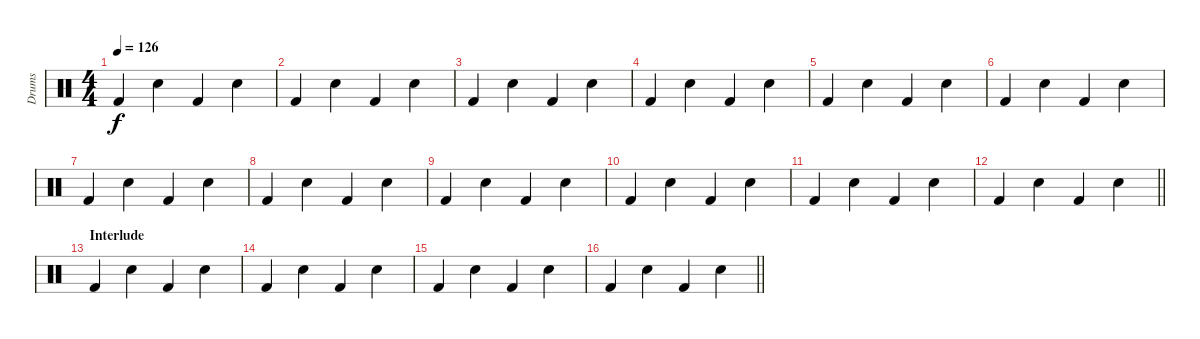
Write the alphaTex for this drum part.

\track ("Drums" "Drums") {instrument percussion}
\staff {score}
\articulation defaults
\ts (4 4)
\tempo 126
\clef neutral
\ks c "Kick (hit) 2".4{dy f} "Electric Snare (hit)".4 "Kick (hit) 2".4 "Electric Snare (hit)".4
|
"Kick (hit) 2".4 "Electric Snare (hit)".4 "Kick (hit) 2".4 "Electric Snare (hit)".4 |
"Kick (hit) 2".4 "Electric Snare (hit)".4 "Kick (hit) 2".4 "Electric Snare (hit)".4 |
"Kick (hit) 2".4 "Electric Snare (hit)".4 "Kick (hit) 2".4 "Electric Snare (hit)".4 |
"Kick (hit) 2".4 "Electric Snare (hit)".4 "Kick (hit) 2".4 "Electric Snare (hit)".4 |
"Kick (hit) 2".4 "Electric Snare (hit)".4 "Kick (hit) 2".4 "Electric Snare (hit)".4 |
"Kick (hit) 2".4 "Electric Snare (hit)".4 "Kick (hit) 2".4 "Electric Snare (hit)".4 |
"Kick (hit) 2".4 "Electric Snare (hit)".4 "Kick (hit) 2".4 "Electric Snare (hit)".4 |
"Kick (hit) 2".4 "Electric Snare (hit)".4 "Kick (hit) 2".4 "Electric Snare (hit)".4 |
"Kick (hit) 2".4 "Electric Snare (hit)".4 "Kick (hit) 2".4 "Electric Snare (hit)".4 |
"Kick (hit) 2".4 "Electric Snare (hit)".4 "Kick (hit) 2".4 "Electric Snare (hit)".4 |
\barLineRight lightlight "Kick (hit) 2".4 "Electric Snare (hit)".4 "Kick (hit) 2".4 "Electric Snare (hit)".4
|
\section ("" "Interlude")
"Kick (hit) 2".4 "Electric Snare (hit)".4 "Kick (hit) 2".4 "Electric Snare (hit)".4 |
"Kick (hit) 2".4 "Electric Snare (hit)".4 "Kick (hit) 2".4 "Electric Snare (hit)".4 |
"Kick (hit) 2".4 "Electric Snare (hit)".4 "Kick (hit) 2".4 "Electric Snare (hit)".4 |
\barLineRight lightlight "Kick (hit) 2".4 "Electric Snare (hit)".4 "Kick (hit) 2".4 "Electric Snare (hit)".4
